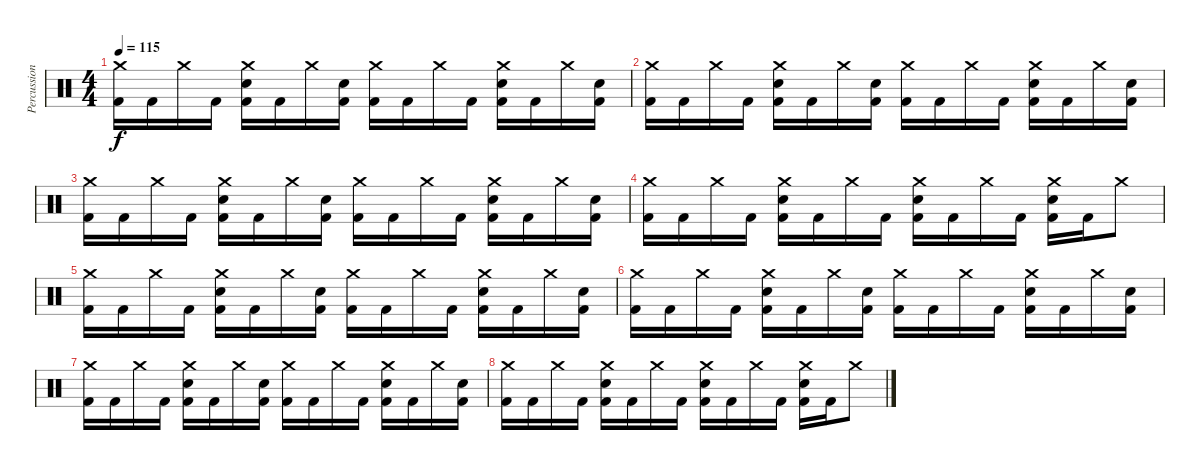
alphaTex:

\track ("Percussion" "Percussion") {instrument percussion}
\staff {score}
\articulation defaults
\ts (4 4)
\tempo 115
\clef neutral
\ks c
("Kick (hit) 2" "Crash medium (hit)").16{dy f} "Kick (hit) 2".16 "Crash medium (hit)".16 "Kick (hit) 2".16 ("Snare (hit) 2" "Kick (hit) 2" "Crash medium (hit)").16 "Kick (hit) 2".16 "Crash medium (hit)".16 ("Snare (hit) 2" "Kick (hit) 2").16 ("Kick (hit) 2" "Crash medium (hit)").16 "Kick (hit) 2".16 "Crash medium (hit)".16 "Kick (hit) 2".16 ("Snare (hit) 2" "Kick (hit) 2" "Crash medium (hit)").16 "Kick (hit) 2".16 "Crash medium (hit)".16 ("Snare (hit) 2" "Kick (hit) 2").16 |
("Kick (hit) 2" "Crash medium (hit)").16 "Kick (hit) 2".16 "Crash medium (hit)".16 "Kick (hit) 2".16 ("Snare (hit) 2" "Kick (hit) 2" "Crash medium (hit)").16 "Kick (hit) 2".16 "Crash medium (hit)".16 ("Snare (hit) 2" "Kick (hit) 2").16 ("Kick (hit) 2" "Crash medium (hit)").16 "Kick (hit) 2".16 "Crash medium (hit)".16 "Kick (hit) 2".16 ("Snare (hit) 2" "Kick (hit) 2" "Crash medium (hit)").16 "Kick (hit) 2".16 "Crash medium (hit)".16 ("Snare (hit) 2" "Kick (hit) 2").16 |
("Kick (hit) 2" "Crash medium (hit)").16 "Kick (hit) 2".16 "Crash medium (hit)".16 "Kick (hit) 2".16 ("Snare (hit) 2" "Kick (hit) 2" "Crash medium (hit)").16 "Kick (hit) 2".16 "Crash medium (hit)".16 ("Snare (hit) 2" "Kick (hit) 2").16 ("Kick (hit) 2" "Crash medium (hit)").16 "Kick (hit) 2".16 "Crash medium (hit)".16 "Kick (hit) 2".16 ("Snare (hit) 2" "Kick (hit) 2" "Crash medium (hit)").16 "Kick (hit) 2".16 "Crash medium (hit)".16 ("Snare (hit) 2" "Kick (hit) 2").16 |
("Kick (hit) 2" "Crash medium (hit)").16 "Kick (hit) 2".16 "Crash medium (hit)".16 "Kick (hit) 2".16 ("Snare (hit) 2" "Kick (hit) 2" "Crash medium (hit)").16 "Kick (hit) 2".16 "Crash medium (hit)".16 "Kick (hit) 2".16 ("Snare (hit) 2" "Kick (hit) 2" "Crash medium (hit)").16 "Kick (hit) 2".16 "Crash medium (hit)".16 "Kick (hit) 2".16 ("Snare (hit) 2" "Kick (hit) 2" "Crash medium (hit)").16 "Kick (hit) 2".16 "Crash medium (hit)".8 |
("Kick (hit) 2" "Crash medium (hit)").16 "Kick (hit) 2".16 "Crash medium (hit)".16 "Kick (hit) 2".16 ("Snare (hit) 2" "Kick (hit) 2" "Crash medium (hit)").16 "Kick (hit) 2".16 "Crash medium (hit)".16 ("Snare (hit) 2" "Kick (hit) 2").16 ("Kick (hit) 2" "Crash medium (hit)").16 "Kick (hit) 2".16 "Crash medium (hit)".16 "Kick (hit) 2".16 ("Snare (hit) 2" "Kick (hit) 2" "Crash medium (hit)").16 "Kick (hit) 2".16 "Crash medium (hit)".16 ("Snare (hit) 2" "Kick (hit) 2").16 |
("Kick (hit) 2" "Crash medium (hit)").16 "Kick (hit) 2".16 "Crash medium (hit)".16 "Kick (hit) 2".16 ("Snare (hit) 2" "Kick (hit) 2" "Crash medium (hit)").16 "Kick (hit) 2".16 "Crash medium (hit)".16 ("Snare (hit) 2" "Kick (hit) 2").16 ("Kick (hit) 2" "Crash medium (hit)").16 "Kick (hit) 2".16 "Crash medium (hit)".16 "Kick (hit) 2".16 ("Snare (hit) 2" "Kick (hit) 2" "Crash medium (hit)").16 "Kick (hit) 2".16 "Crash medium (hit)".16 ("Snare (hit) 2" "Kick (hit) 2").16 |
("Kick (hit) 2" "Crash medium (hit)").16 "Kick (hit) 2".16 "Crash medium (hit)".16 "Kick (hit) 2".16 ("Snare (hit) 2" "Kick (hit) 2" "Crash medium (hit)").16 "Kick (hit) 2".16 "Crash medium (hit)".16 ("Snare (hit) 2" "Kick (hit) 2").16 ("Kick (hit) 2" "Crash medium (hit)").16 "Kick (hit) 2".16 "Crash medium (hit)".16 "Kick (hit) 2".16 ("Snare (hit) 2" "Kick (hit) 2" "Crash medium (hit)").16 "Kick (hit) 2".16 "Crash medium (hit)".16 ("Snare (hit) 2" "Kick (hit) 2").16 |
("Kick (hit) 2" "Crash medium (hit)").16 "Kick (hit) 2".16 "Crash medium (hit)".16 "Kick (hit) 2".16 ("Snare (hit) 2" "Kick (hit) 2" "Crash medium (hit)").16 "Kick (hit) 2".16 "Crash medium (hit)".16 "Kick (hit) 2".16 ("Snare (hit) 2" "Kick (hit) 2" "Crash medium (hit)").16 "Kick (hit) 2".16 "Crash medium (hit)".16 "Kick (hit) 2".16 ("Snare (hit) 2" "Kick (hit) 2" "Crash medium (hit)").16 "Kick (hit) 2".16 "Crash medium (hit)".8
